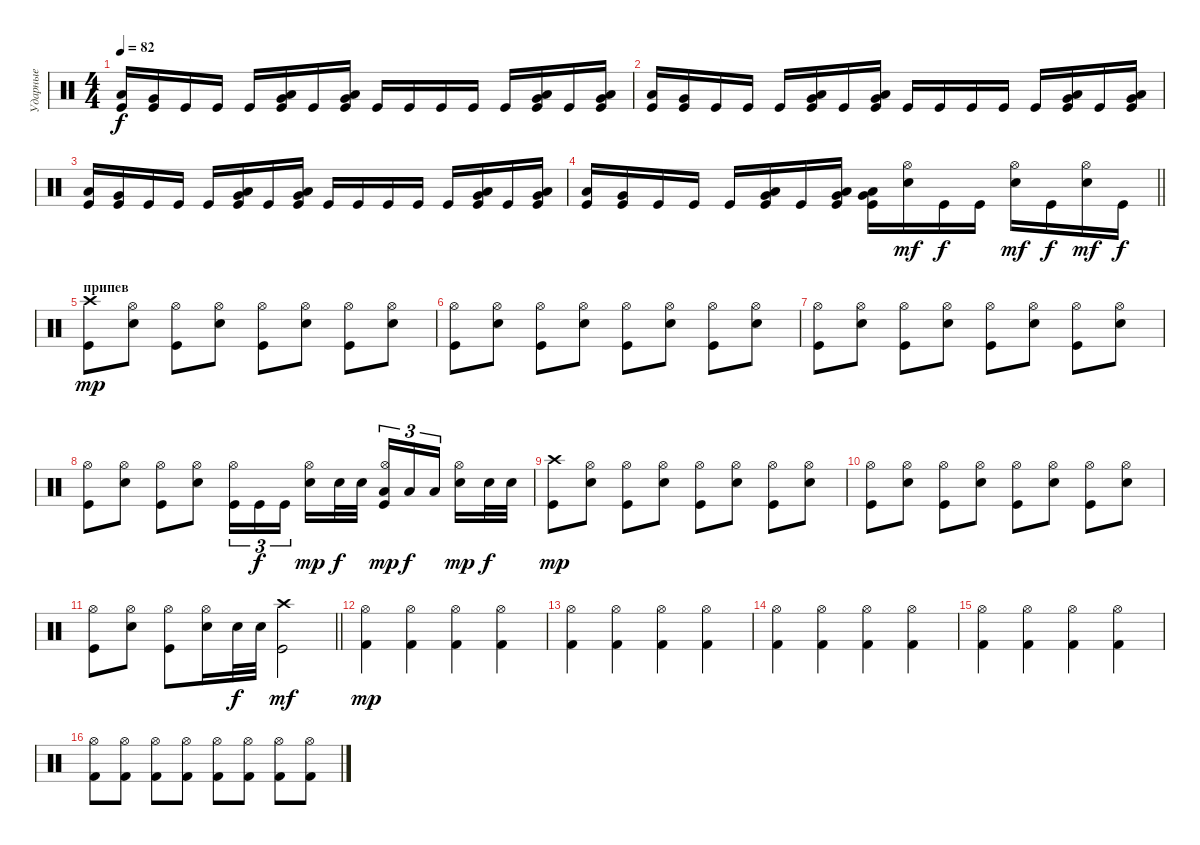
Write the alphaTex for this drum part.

\track ("Ударные" "Ударные") {instrument percussion}
\staff {score}
\articulation defaults
\ts (4 4)
\section ("" "")
\tempo 82
\clef neutral
\ks c
("Kick (hit)" "Low Tom (hit)").16{dy f} ("Kick (hit)" "Very Low Tom (hit)").16 "Kick (hit)".16 "Kick (hit)".16 "Kick (hit)".16 ("Kick (hit)" "Low Tom (hit)" "Very Low Tom (hit)").16 "Kick (hit)".16 ("Kick (hit)" "Low Tom (hit)" "Very Low Tom (hit)").16 "Kick (hit)".16 "Kick (hit)".16 "Kick (hit)".16 "Kick (hit)".16 "Kick (hit)".16 ("Kick (hit)" "Low Tom (hit)" "Very Low Tom (hit)").16 "Kick (hit)".16 ("Kick (hit)" "Low Tom (hit)" "Very Low Tom (hit)").16 |
("Kick (hit)" "Low Tom (hit)").16 ("Kick (hit)" "Very Low Tom (hit)").16 "Kick (hit)".16 "Kick (hit)".16 "Kick (hit)".16 ("Kick (hit)" "Low Tom (hit)" "Very Low Tom (hit)").16 "Kick (hit)".16 ("Kick (hit)" "Low Tom (hit)" "Very Low Tom (hit)").16 "Kick (hit)".16 "Kick (hit)".16 "Kick (hit)".16 "Kick (hit)".16 "Kick (hit)".16 ("Kick (hit)" "Low Tom (hit)" "Very Low Tom (hit)").16 "Kick (hit)".16 ("Kick (hit)" "Low Tom (hit)" "Very Low Tom (hit)").16 |
("Kick (hit)" "Low Tom (hit)").16 ("Kick (hit)" "Very Low Tom (hit)").16 "Kick (hit)".16 "Kick (hit)".16 "Kick (hit)".16 ("Kick (hit)" "Low Tom (hit)" "Very Low Tom (hit)").16 "Kick (hit)".16 ("Kick (hit)" "Low Tom (hit)" "Very Low Tom (hit)").16 "Kick (hit)".16 "Kick (hit)".16 "Kick (hit)".16 "Kick (hit)".16 "Kick (hit)".16 ("Kick (hit)" "Low Tom (hit)" "Very Low Tom (hit)").16 "Kick (hit)".16 ("Kick (hit)" "Low Tom (hit)" "Very Low Tom (hit)").16 |
\barLineRight lightlight
("Kick (hit)" "Low Tom (hit)").16 ("Kick (hit)" "Very Low Tom (hit)").16 "Kick (hit)".16 "Kick (hit)".16 "Kick (hit)".16 ("Kick (hit)" "Low Tom (hit)" "Very Low Tom (hit)").16 "Kick (hit)".16 ("Kick (hit)" "Low Tom (hit)" "Very Low Tom (hit)").16 ("Kick (hit)" "Low Tom (hit)" "Very Low Tom (hit)").16 ("Snare (hit) 2" "Hi-Hat (open)").16{dy mf} "Kick (hit)".16{dy f} "Kick (hit)".16 ("Snare (hit) 2" "Hi-Hat (open)").16{dy mf} "Kick (hit)".16{dy f} ("Snare (hit) 2" "Hi-Hat (open)").16{dy mf} "Kick (hit)".16{dy f} |
\section ("" "припев")
("Kick (hit)" "Crash high (hit)").8{dy mp} ("Snare (hit) 2" "Hi-Hat (open)").8 ("Kick (hit)" "Hi-Hat (open)").8 ("Snare (hit) 2" "Hi-Hat (open)").8 ("Kick (hit)" "Hi-Hat (open)").8 ("Snare (hit) 2" "Hi-Hat (open)").8 ("Kick (hit)" "Hi-Hat (open)").8 ("Snare (hit) 2" "Hi-Hat (open)").8 |
("Kick (hit)" "Hi-Hat (open)").8 ("Snare (hit) 2" "Hi-Hat (open)").8 ("Kick (hit)" "Hi-Hat (open)").8 ("Snare (hit) 2" "Hi-Hat (open)").8 ("Kick (hit)" "Hi-Hat (open)").8 ("Snare (hit) 2" "Hi-Hat (open)").8 ("Kick (hit)" "Hi-Hat (open)").8 ("Snare (hit) 2" "Hi-Hat (open)").8 |
("Kick (hit)" "Hi-Hat (open)").8 ("Snare (hit) 2" "Hi-Hat (open)").8 ("Kick (hit)" "Hi-Hat (open)").8 ("Snare (hit) 2" "Hi-Hat (open)").8 ("Kick (hit)" "Hi-Hat (open)").8 ("Snare (hit) 2" "Hi-Hat (open)").8 ("Kick (hit)" "Hi-Hat (open)").8 ("Snare (hit) 2" "Hi-Hat (open)").8 |
("Kick (hit)" "Hi-Hat (open)").8 ("Snare (hit) 2" "Hi-Hat (open)").8 ("Kick (hit)" "Hi-Hat (open)").8 ("Snare (hit) 2" "Hi-Hat (open)").8 ("Kick (hit)" "Hi-Hat (open)").16{tu (3 2)} "Kick (hit)".16{tu (3 2) dy f} "Kick (hit)".16{tu (3 2) beam splitsecondary} ("Snare (hit) 2" "Hi-Hat (open)").16{dy mp} "Snare (hit) 2".32{dy f} "Snare (hit) 2".32 ("Kick (hit)" "Hi-Hat (open)" "Low Floor Tom (hit)").16{tu (3 2) dy mp} "Low Floor Tom (hit)".16{tu (3 2) dy f} "Low Floor Tom (hit)".16{tu (3 2) beam splitsecondary} ("Snare (hit) 2" "Hi-Hat (open)").16{dy mp} "Snare (hit) 2".32{dy f} "Snare (hit) 2".32 |
("Kick (hit)" "Crash high (hit)").8{dy mp} ("Snare (hit) 2" "Hi-Hat (open)").8 ("Kick (hit)" "Hi-Hat (open)").8 ("Snare (hit) 2" "Hi-Hat (open)").8 ("Kick (hit)" "Hi-Hat (open)").8 ("Snare (hit) 2" "Hi-Hat (open)").8 ("Kick (hit)" "Hi-Hat (open)").8 ("Snare (hit) 2" "Hi-Hat (open)").8 |
("Kick (hit)" "Hi-Hat (open)").8 ("Snare (hit) 2" "Hi-Hat (open)").8 ("Kick (hit)" "Hi-Hat (open)").8 ("Snare (hit) 2" "Hi-Hat (open)").8 ("Kick (hit)" "Hi-Hat (open)").8 ("Snare (hit) 2" "Hi-Hat (open)").8 ("Kick (hit)" "Hi-Hat (open)").8 ("Snare (hit) 2" "Hi-Hat (open)").8 |
\barLineRight lightlight
("Kick (hit)" "Hi-Hat (open)").8 ("Snare (hit) 2" "Hi-Hat (open)").8 ("Kick (hit)" "Hi-Hat (open)").8 ("Snare (hit) 2" "Hi-Hat (open)").16 "Snare (hit) 2".32{dy f} "Snare (hit) 2".32 ("Kick (hit)" "Crash high (hit)").2{dy mf} |
\section ("" "")
("Kick (hit) 2" "Hi-Hat (open)").4{dy mp} ("Kick (hit) 2" "Hi-Hat (open)").4 ("Kick (hit) 2" "Hi-Hat (open)").4 ("Kick (hit) 2" "Hi-Hat (open)").4 |
("Kick (hit) 2" "Hi-Hat (open)").4 ("Kick (hit) 2" "Hi-Hat (open)").4 ("Kick (hit) 2" "Hi-Hat (open)").4 ("Kick (hit) 2" "Hi-Hat (open)").4 |
("Kick (hit) 2" "Hi-Hat (open)").4 ("Kick (hit) 2" "Hi-Hat (open)").4 ("Kick (hit) 2" "Hi-Hat (open)").4 ("Kick (hit) 2" "Hi-Hat (open)").4 |
("Kick (hit) 2" "Hi-Hat (open)").4 ("Kick (hit) 2" "Hi-Hat (open)").4 ("Kick (hit) 2" "Hi-Hat (open)").4 ("Kick (hit) 2" "Hi-Hat (open)").4 |
("Kick (hit) 2" "Hi-Hat (open)").8 ("Kick (hit) 2" "Hi-Hat (open)").8 ("Kick (hit) 2" "Hi-Hat (open)").8 ("Kick (hit) 2" "Hi-Hat (open)").8 ("Kick (hit) 2" "Hi-Hat (open)").8 ("Kick (hit) 2" "Hi-Hat (open)").8 ("Kick (hit) 2" "Hi-Hat (open)").8 ("Kick (hit) 2" "Hi-Hat (open)").8
